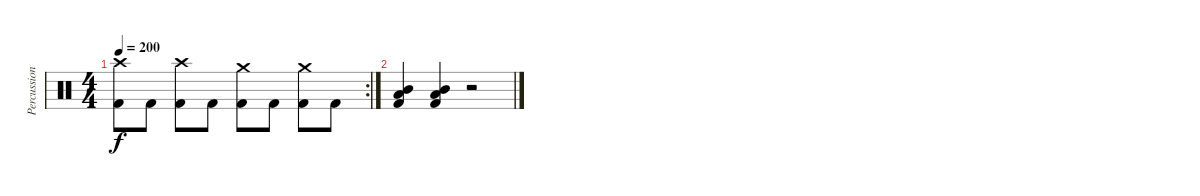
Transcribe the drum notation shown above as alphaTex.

\track ("Percussions" "Percussion") {instrument percussion}
\staff {score}
\articulation defaults
\rc 2
\ts (4 4)
\tempo 200
\clef neutral
\ks c
("Crash high (hit)" "Kick (hit) 2").8{dy f} "Kick (hit) 2".8 ("Crash high (hit)" "Kick (hit) 2").8 "Kick (hit) 2".8 ("Crash medium (hit)" "Kick (hit) 2").8 "Kick (hit) 2".8 ("Crash medium (hit)" "Kick (hit) 2").8 "Kick (hit) 2".8 |
("Mid Tom (hit)" "Low Tom (hit)" "Kick (hit) 2").4 ("Mid Tom (hit)" "Low Tom (hit)" "Kick (hit) 2").4 r.2
